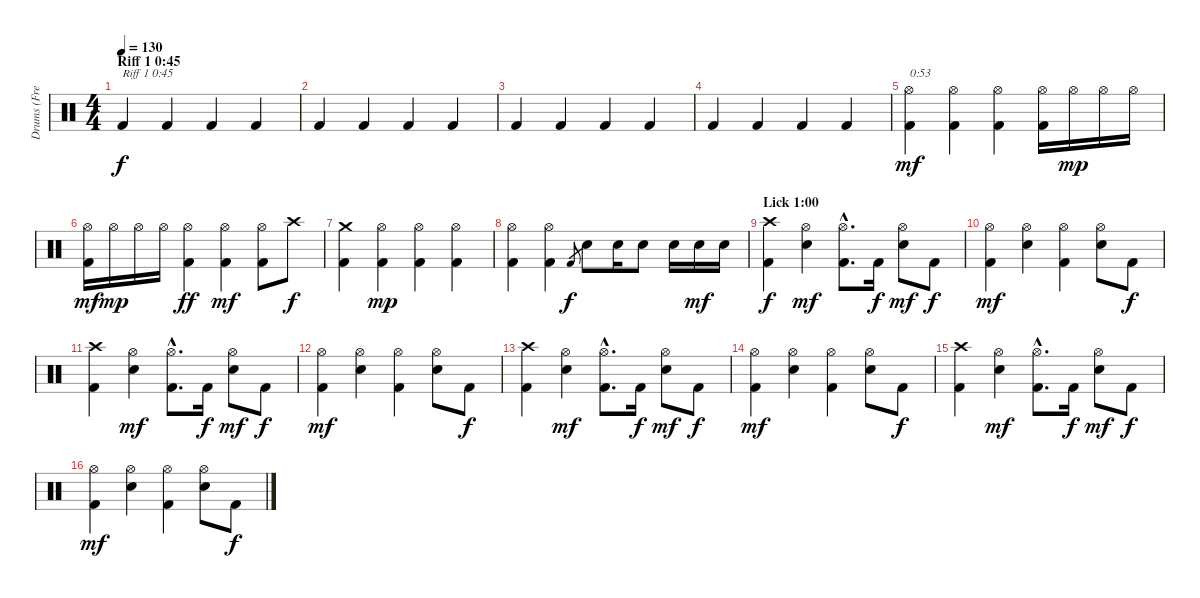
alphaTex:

\track ("Drums (Fred Estby)" "Drums (Fre") {instrument percussion}
\staff {score}
\articulation defaults
\ts (4 4)
\section ("" "Riff 1 0:45")
\tempo 130
\clef neutral
\ks c "Kick (hit) 2".4{txt "Riff 1 0:45" dy f volume 13} "Kick (hit) 2".4 "Kick (hit) 2".4 "Kick (hit) 2".4
|
"Kick (hit) 2".4 "Kick (hit) 2".4 "Kick (hit) 2".4 "Kick (hit) 2".4 |
"Kick (hit) 2".4 "Kick (hit) 2".4 "Kick (hit) 2".4 "Kick (hit) 2".4 |
"Kick (hit) 2".4 "Kick (hit) 2".4 "Kick (hit) 2".4 "Kick (hit) 2".4 |
("Kick (hit) 2" "Hi-Hat (open)").4{txt "0:53" dy mf} ("Kick (hit) 2" "Hi-Hat (open)").4 ("Kick (hit) 2" "Hi-Hat (open)").4 ("Kick (hit) 2" "Hi-Hat (open)").16 "Hi-Hat (open)".16{dy mp} "Hi-Hat (open)".16 "Hi-Hat (open)".16 |
("Kick (hit) 2" "Hi-Hat (open)").16{dy mf} "Hi-Hat (open)".16{dy mp} "Hi-Hat (open)".16 "Hi-Hat (open)".16 ("Kick (hit) 2" "Hi-Hat (open)").4{dy ff} ("Kick (hit) 2" "Hi-Hat (open)").4{dy mf} ("Kick (hit) 2" "Hi-Hat (open)").8 "Crash high (hit)".8{dy f} |
("Kick (hit) 2" "Crash medium (hit)").4 ("Kick (hit) 2" "Hi-Hat (open)").4{dy mp} ("Kick (hit) 2" "Hi-Hat (open)").4 ("Kick (hit) 2" "Hi-Hat (open)").4 |
("Kick (hit) 2" "Hi-Hat (open)").4 ("Kick (hit) 2" "Hi-Hat (open)").4 "Kick (hit) 2".8{gr dy f} "Electric Snare (hit)".8 "Electric Snare (hit)".16 "Electric Snare (hit)".8 "Electric Snare (hit)".16 "Electric Snare (hit)".16{dy mf} "Electric Snare (hit)".16 |
\section ("" "Lick 1:00")
("Kick (hit) 2" "Crash high (hit)").4{dy f} ("Electric Snare (hit)" "Hi-Hat (open)").4{dy mf} ("Kick (hit) 2"{hac} "Hi-Hat (open)"{hac}).8{d} "Kick (hit) 2".16{dy f} ("Electric Snare (hit)" "Hi-Hat (open)").8{dy mf} "Kick (hit) 2".8{dy f} |
("Kick (hit) 2" "Hi-Hat (open)").4{dy mf} ("Electric Snare (hit)" "Hi-Hat (open)").4 ("Kick (hit) 2" "Hi-Hat (open)").4 ("Electric Snare (hit)" "Hi-Hat (open)").8 "Kick (hit) 2".8{dy f} |
("Kick (hit) 2" "Crash high (hit)").4 ("Electric Snare (hit)" "Hi-Hat (open)").4{dy mf} ("Kick (hit) 2"{hac} "Hi-Hat (open)"{hac}).8{d} "Kick (hit) 2".16{dy f} ("Electric Snare (hit)" "Hi-Hat (open)").8{dy mf} "Kick (hit) 2".8{dy f} |
("Kick (hit) 2" "Hi-Hat (open)").4{dy mf} ("Electric Snare (hit)" "Hi-Hat (open)").4 ("Kick (hit) 2" "Hi-Hat (open)").4 ("Electric Snare (hit)" "Hi-Hat (open)").8 "Kick (hit) 2".8{dy f} |
("Kick (hit) 2" "Crash high (hit)").4 ("Electric Snare (hit)" "Hi-Hat (open)").4{dy mf} ("Kick (hit) 2"{hac} "Hi-Hat (open)"{hac}).8{d} "Kick (hit) 2".16{dy f} ("Electric Snare (hit)" "Hi-Hat (open)").8{dy mf} "Kick (hit) 2".8{dy f} |
("Kick (hit) 2" "Hi-Hat (open)").4{dy mf} ("Electric Snare (hit)" "Hi-Hat (open)").4 ("Kick (hit) 2" "Hi-Hat (open)").4 ("Electric Snare (hit)" "Hi-Hat (open)").8 "Kick (hit) 2".8{dy f} |
("Kick (hit) 2" "Crash high (hit)").4 ("Electric Snare (hit)" "Hi-Hat (open)").4{dy mf} ("Kick (hit) 2"{hac} "Hi-Hat (open)"{hac}).8{d} "Kick (hit) 2".16{dy f} ("Electric Snare (hit)" "Hi-Hat (open)").8{dy mf} "Kick (hit) 2".8{dy f} |
("Kick (hit) 2" "Hi-Hat (open)").4{dy mf} ("Electric Snare (hit)" "Hi-Hat (open)").4 ("Kick (hit) 2" "Hi-Hat (open)").4 ("Electric Snare (hit)" "Hi-Hat (open)").8 "Kick (hit) 2".8{dy f}
